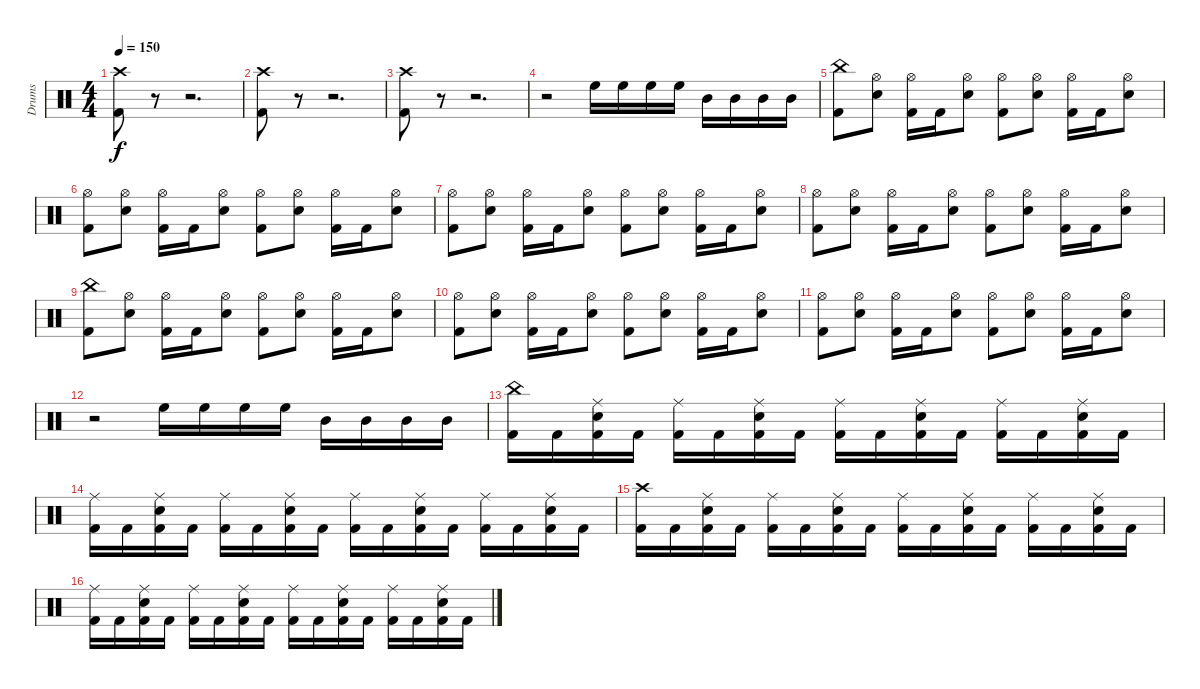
\track ("Drums" "Drums") {instrument percussion}
\staff {score}
\articulation defaults
\ts (4 4)
\tempo 150
\clef neutral
\ks c
("Crash high (hit)" "Kick (hit) 2").8{dy f} r.8 r.2{d} |
("Crash high (hit)" "Kick (hit) 2").8 r.8 r.2{d} |
("Crash high (hit)" "Kick (hit) 2").8 r.8 r.2{d} |
r.2 "High Floor Tom (hit)".16 "High Floor Tom (hit)".16 "High Floor Tom (hit)".16 "High Floor Tom (hit)".16 "Mid Tom (hit)".16 "Mid Tom (hit)".16 "Mid Tom (hit)".16 "Mid Tom (hit)".16 |
("China (hit)" "Kick (hit) 2").8 ("Hi-Hat (open)" "Snare (hit) 2").8 ("Hi-Hat (open)" "Kick (hit) 2").16 "Kick (hit) 2".16 ("Hi-Hat (open)" "Snare (hit) 2").8 ("Hi-Hat (open)" "Kick (hit) 2").8 ("Hi-Hat (open)" "Snare (hit) 2").8 ("Hi-Hat (open)" "Kick (hit) 2").16 "Kick (hit) 2".16 ("Hi-Hat (open)" "Snare (hit) 2").8 |
("Hi-Hat (open)" "Kick (hit) 2").8 ("Hi-Hat (open)" "Snare (hit) 2").8 ("Hi-Hat (open)" "Kick (hit) 2").16 "Kick (hit) 2".16 ("Hi-Hat (open)" "Snare (hit) 2").8 ("Hi-Hat (open)" "Kick (hit) 2").8 ("Hi-Hat (open)" "Snare (hit) 2").8 ("Hi-Hat (open)" "Kick (hit) 2").16 "Kick (hit) 2".16 ("Hi-Hat (open)" "Snare (hit) 2").8 |
("Hi-Hat (open)" "Kick (hit) 2").8 ("Hi-Hat (open)" "Snare (hit) 2").8 ("Hi-Hat (open)" "Kick (hit) 2").16 "Kick (hit) 2".16 ("Hi-Hat (open)" "Snare (hit) 2").8 ("Hi-Hat (open)" "Kick (hit) 2").8 ("Hi-Hat (open)" "Snare (hit) 2").8 ("Hi-Hat (open)" "Kick (hit) 2").16 "Kick (hit) 2".16 ("Hi-Hat (open)" "Snare (hit) 2").8 |
("Hi-Hat (open)" "Kick (hit) 2").8 ("Hi-Hat (open)" "Snare (hit) 2").8 ("Hi-Hat (open)" "Kick (hit) 2").16 "Kick (hit) 2".16 ("Hi-Hat (open)" "Snare (hit) 2").8 ("Hi-Hat (open)" "Kick (hit) 2").8 ("Hi-Hat (open)" "Snare (hit) 2").8 ("Hi-Hat (open)" "Kick (hit) 2").16 "Kick (hit) 2".16 ("Hi-Hat (open)" "Snare (hit) 2").8 |
("China (hit)" "Kick (hit) 2").8 ("Hi-Hat (open)" "Snare (hit) 2").8 ("Hi-Hat (open)" "Kick (hit) 2").16 "Kick (hit) 2".16 ("Hi-Hat (open)" "Snare (hit) 2").8 ("Hi-Hat (open)" "Kick (hit) 2").8 ("Hi-Hat (open)" "Snare (hit) 2").8 ("Hi-Hat (open)" "Kick (hit) 2").16 "Kick (hit) 2".16 ("Hi-Hat (open)" "Snare (hit) 2").8 |
("Hi-Hat (open)" "Kick (hit) 2").8 ("Hi-Hat (open)" "Snare (hit) 2").8 ("Hi-Hat (open)" "Kick (hit) 2").16 "Kick (hit) 2".16 ("Hi-Hat (open)" "Snare (hit) 2").8 ("Hi-Hat (open)" "Kick (hit) 2").8 ("Hi-Hat (open)" "Snare (hit) 2").8 ("Hi-Hat (open)" "Kick (hit) 2").16 "Kick (hit) 2".16 ("Hi-Hat (open)" "Snare (hit) 2").8 |
("Hi-Hat (open)" "Kick (hit) 2").8 ("Hi-Hat (open)" "Snare (hit) 2").8 ("Hi-Hat (open)" "Kick (hit) 2").16 "Kick (hit) 2".16 ("Hi-Hat (open)" "Snare (hit) 2").8 ("Hi-Hat (open)" "Kick (hit) 2").8 ("Hi-Hat (open)" "Snare (hit) 2").8 ("Hi-Hat (open)" "Kick (hit) 2").16 "Kick (hit) 2".16 ("Hi-Hat (open)" "Snare (hit) 2").8 |
r.2 "High Floor Tom (hit)".16 "High Floor Tom (hit)".16 "High Floor Tom (hit)".16 "High Floor Tom (hit)".16 "Mid Tom (hit)".16 "Mid Tom (hit)".16 "Mid Tom (hit)".16 "Mid Tom (hit)".16 |
("China (hit)" "Kick (hit) 2").16 "Kick (hit) 2".16 ("Ride (middle)" "Snare (hit) 2" "Kick (hit) 2").16 "Kick (hit) 2".16 ("Ride (middle)" "Kick (hit) 2").16 "Kick (hit) 2".16 ("Ride (middle)" "Snare (hit) 2" "Kick (hit) 2").16 "Kick (hit) 2".16 ("Ride (middle)" "Kick (hit) 2").16 "Kick (hit) 2".16 ("Ride (middle)" "Snare (hit) 2" "Kick (hit) 2").16 "Kick (hit) 2".16 ("Ride (middle)" "Kick (hit) 2").16 "Kick (hit) 2".16 ("Ride (middle)" "Snare (hit) 2" "Kick (hit) 2").16 "Kick (hit) 2".16 |
("Ride (middle)" "Kick (hit) 2").16 "Kick (hit) 2".16 ("Ride (middle)" "Snare (hit) 2" "Kick (hit) 2").16 "Kick (hit) 2".16 ("Ride (middle)" "Kick (hit) 2").16 "Kick (hit) 2".16 ("Ride (middle)" "Snare (hit) 2" "Kick (hit) 2").16 "Kick (hit) 2".16 ("Ride (middle)" "Kick (hit) 2").16 "Kick (hit) 2".16 ("Ride (middle)" "Snare (hit) 2" "Kick (hit) 2").16 "Kick (hit) 2".16 ("Ride (middle)" "Kick (hit) 2").16 "Kick (hit) 2".16 ("Ride (middle)" "Snare (hit) 2" "Kick (hit) 2").16 "Kick (hit) 2".16 |
("Crash high (hit)" "Kick (hit) 2").16 "Kick (hit) 2".16 ("Ride (middle)" "Snare (hit) 2" "Kick (hit) 2").16 "Kick (hit) 2".16 ("Ride (middle)" "Kick (hit) 2").16 "Kick (hit) 2".16 ("Ride (middle)" "Snare (hit) 2" "Kick (hit) 2").16 "Kick (hit) 2".16 ("Ride (middle)" "Kick (hit) 2").16 "Kick (hit) 2".16 ("Ride (middle)" "Snare (hit) 2" "Kick (hit) 2").16 "Kick (hit) 2".16 ("Ride (middle)" "Kick (hit) 2").16 "Kick (hit) 2".16 ("Ride (middle)" "Snare (hit) 2" "Kick (hit) 2").16 "Kick (hit) 2".16 |
("Ride (middle)" "Kick (hit) 2").16 "Kick (hit) 2".16 ("Ride (middle)" "Snare (hit) 2" "Kick (hit) 2").16 "Kick (hit) 2".16 ("Ride (middle)" "Kick (hit) 2").16 "Kick (hit) 2".16 ("Ride (middle)" "Snare (hit) 2" "Kick (hit) 2").16 "Kick (hit) 2".16 ("Ride (middle)" "Kick (hit) 2").16 "Kick (hit) 2".16 ("Ride (middle)" "Snare (hit) 2" "Kick (hit) 2").16 "Kick (hit) 2".16 ("Ride (middle)" "Kick (hit) 2").16 "Kick (hit) 2".16 ("Ride (middle)" "Snare (hit) 2" "Kick (hit) 2").16 "Kick (hit) 2".16
